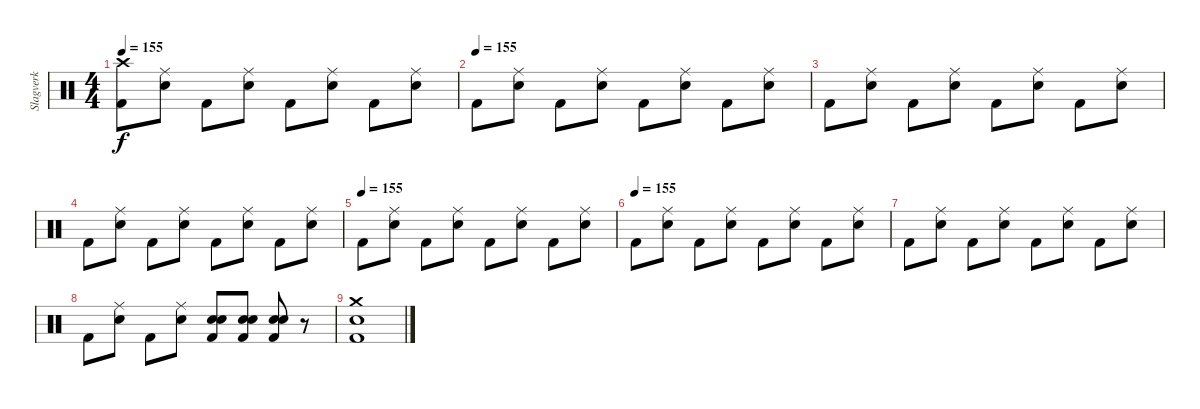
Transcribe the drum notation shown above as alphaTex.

\track ("Slagverk" "Slagverk") {instrument percussion}
\staff {score}
\articulation defaults
\ts (4 4)
\tempo 155
\clef neutral
\ks c
("Crash high (hit)" "Kick (hit) 2").8{dy f} ("Ride (middle)" "Snare (hit) 2").8 "Kick (hit) 2".8 ("Ride (middle)" "Snare (hit) 2").8 "Kick (hit) 2".8 ("Ride (middle)" "Snare (hit) 2").8 "Kick (hit) 2".8 ("Ride (middle)" "Snare (hit) 2").8 |
\tempo (155)
"Kick (hit) 2".8 ("Ride (middle)" "Snare (hit) 2").8 "Kick (hit) 2".8 ("Ride (middle)" "Snare (hit) 2").8 "Kick (hit) 2".8 ("Ride (middle)" "Snare (hit) 2").8 "Kick (hit) 2".8 ("Ride (middle)" "Snare (hit) 2").8 |
"Kick (hit) 2".8 ("Ride (middle)" "Snare (hit) 2").8 "Kick (hit) 2".8 ("Ride (middle)" "Snare (hit) 2").8 "Kick (hit) 2".8 ("Ride (middle)" "Snare (hit) 2").8 "Kick (hit) 2".8 ("Ride (middle)" "Snare (hit) 2").8 |
"Kick (hit) 2".8 ("Ride (middle)" "Snare (hit) 2").8 "Kick (hit) 2".8 ("Ride (middle)" "Snare (hit) 2").8 "Kick (hit) 2".8 ("Ride (middle)" "Snare (hit) 2").8 "Kick (hit) 2".8 ("Ride (middle)" "Snare (hit) 2").8 |
\tempo (155)
"Kick (hit) 2".8 ("Ride (middle)" "Snare (hit) 2").8 "Kick (hit) 2".8 ("Ride (middle)" "Snare (hit) 2").8 "Kick (hit) 2".8 ("Ride (middle)" "Snare (hit) 2").8 "Kick (hit) 2".8 ("Ride (middle)" "Snare (hit) 2").8 |
\tempo (155)
"Kick (hit) 2".8 ("Ride (middle)" "Snare (hit) 2").8 "Kick (hit) 2".8 ("Ride (middle)" "Snare (hit) 2").8 "Kick (hit) 2".8 ("Ride (middle)" "Snare (hit) 2").8 "Kick (hit) 2".8 ("Ride (middle)" "Snare (hit) 2").8 |
"Kick (hit) 2".8 ("Ride (middle)" "Snare (hit) 2").8 "Kick (hit) 2".8 ("Ride (middle)" "Snare (hit) 2").8 "Kick (hit) 2".8 ("Ride (middle)" "Snare (hit) 2").8 "Kick (hit) 2".8 ("Ride (middle)" "Snare (hit) 2").8 |
"Kick (hit) 2".8 ("Ride (middle)" "Snare (hit) 2").8 "Kick (hit) 2".8 ("Ride (middle)" "Snare (hit) 2").8 ("Electric Snare (hit)" "Snare (hit) 2" "Kick (hit) 2").8 ("Electric Snare (hit)" "Snare (hit) 2" "Kick (hit) 2").8 ("Electric Snare (hit)" "Snare (hit) 2" "Kick (hit) 2").8 r.8 |
("Crash medium (hit)" "Snare (hit) 2" "Kick (hit) 2").1
